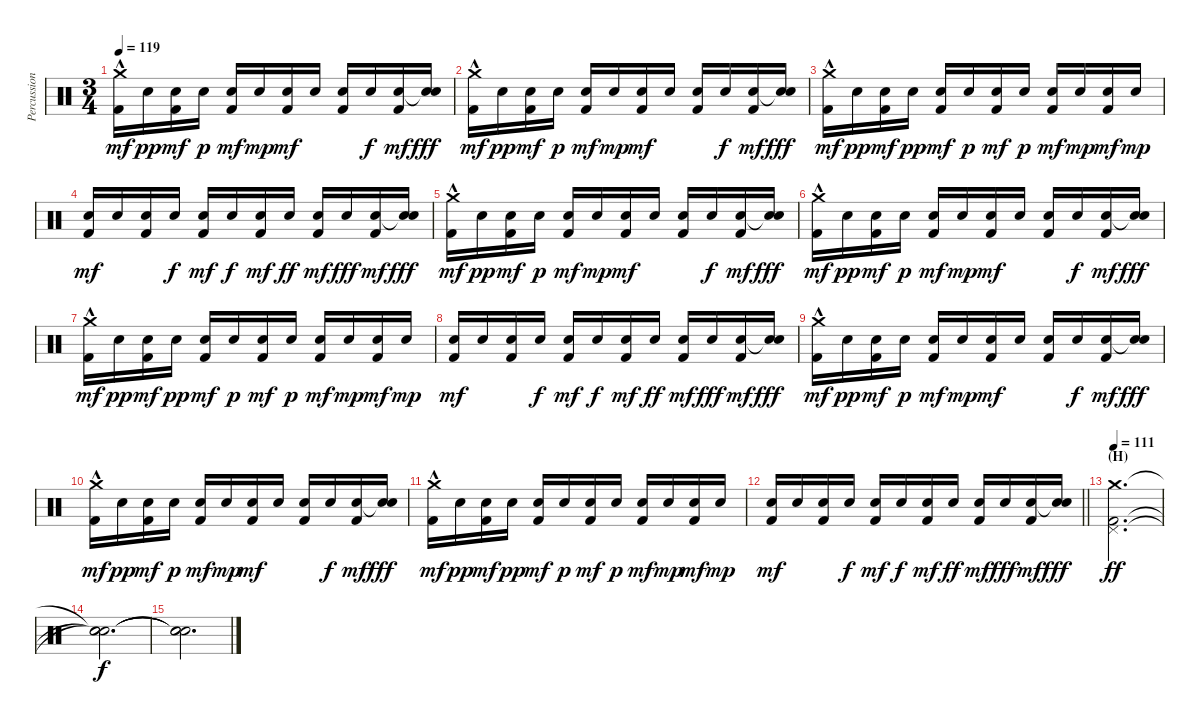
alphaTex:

\track ("Percussion 1" "Percussion") {instrument percussion}
\staff {score}
\articulation defaults
\ts (3 4)
\tempo 119
\clef neutral
\ks c
("Crash medium (hit)"{hac} "Kick (hit) 2").16{dy mf} "Snare (hit) 2".16{dy pp} ("Snare (hit) 2" "Kick (hit) 2").16{dy mf} "Snare (hit) 2".16{dy p} ("Snare (hit) 2" "Kick (hit) 2").16{dy mf} "Snare (hit) 2".16{dy mp} ("Snare (hit) 2" "Kick (hit) 2").16{dy mf} "Snare (hit) 2".16 ("Snare (hit) 2" "Kick (hit) 2").16 "Snare (hit) 2".16{dy f} ("Snare (hit) 2" "Kick (hit) 2").16{dy mf} ("Snare (hit)"{t} "Snare (hit) 2").16{dy fff} |
("Crash medium (hit)"{hac} "Kick (hit) 2").16{dy mf} "Snare (hit) 2".16{dy pp} ("Snare (hit) 2" "Kick (hit) 2").16{dy mf} "Snare (hit) 2".16{dy p} ("Snare (hit) 2" "Kick (hit) 2").16{dy mf} "Snare (hit) 2".16{dy mp} ("Snare (hit) 2" "Kick (hit) 2").16{dy mf} "Snare (hit) 2".16 ("Snare (hit) 2" "Kick (hit) 2").16 "Snare (hit) 2".16{dy f} ("Snare (hit) 2" "Kick (hit) 2").16{dy mf} ("Snare (hit)"{t} "Snare (hit) 2").16{dy fff} |
("Crash medium (hit)"{hac} "Kick (hit) 2").16{dy mf} "Snare (hit) 2".16{dy pp} ("Snare (hit) 2" "Kick (hit) 2").16{dy mf} "Snare (hit) 2".16{dy pp} ("Snare (hit) 2" "Kick (hit) 2").16{dy mf} "Snare (hit) 2".16{dy p} ("Snare (hit) 2" "Kick (hit) 2").16{dy mf} "Snare (hit) 2".16{dy p} ("Snare (hit) 2" "Kick (hit) 2").16{dy mf} "Snare (hit) 2".16{dy mp} ("Snare (hit) 2" "Kick (hit) 2").16{dy mf} "Snare (hit) 2".16{dy mp} |
("Snare (hit) 2" "Kick (hit) 2").16{dy mf} "Snare (hit) 2".16 ("Snare (hit) 2" "Kick (hit) 2").16 "Snare (hit) 2".16{dy f} ("Snare (hit) 2" "Kick (hit) 2").16{dy mf} "Snare (hit) 2".16{dy f} ("Snare (hit) 2" "Kick (hit) 2").16{dy mf} "Snare (hit) 2".16{dy ff} ("Snare (hit) 2" "Kick (hit) 2").16{dy mf} "Snare (hit) 2".16{dy fff} ("Snare (hit) 2" "Kick (hit) 2").16{dy mf} ("Snare (hit)"{t} "Snare (hit) 2").16{dy fff} |
("Crash medium (hit)"{hac} "Kick (hit) 2").16{dy mf} "Snare (hit) 2".16{dy pp} ("Snare (hit) 2" "Kick (hit) 2").16{dy mf} "Snare (hit) 2".16{dy p} ("Snare (hit) 2" "Kick (hit) 2").16{dy mf} "Snare (hit) 2".16{dy mp} ("Snare (hit) 2" "Kick (hit) 2").16{dy mf} "Snare (hit) 2".16 ("Snare (hit) 2" "Kick (hit) 2").16 "Snare (hit) 2".16{dy f} ("Snare (hit) 2" "Kick (hit) 2").16{dy mf} ("Snare (hit)"{t} "Snare (hit) 2").16{dy fff} |
("Crash medium (hit)"{hac} "Kick (hit) 2").16{dy mf} "Snare (hit) 2".16{dy pp} ("Snare (hit) 2" "Kick (hit) 2").16{dy mf} "Snare (hit) 2".16{dy p} ("Snare (hit) 2" "Kick (hit) 2").16{dy mf} "Snare (hit) 2".16{dy mp} ("Snare (hit) 2" "Kick (hit) 2").16{dy mf} "Snare (hit) 2".16 ("Snare (hit) 2" "Kick (hit) 2").16 "Snare (hit) 2".16{dy f} ("Snare (hit) 2" "Kick (hit) 2").16{dy mf} ("Snare (hit)"{t} "Snare (hit) 2").16{dy fff} |
("Crash medium (hit)"{hac} "Kick (hit) 2").16{dy mf} "Snare (hit) 2".16{dy pp} ("Snare (hit) 2" "Kick (hit) 2").16{dy mf} "Snare (hit) 2".16{dy pp} ("Snare (hit) 2" "Kick (hit) 2").16{dy mf} "Snare (hit) 2".16{dy p} ("Snare (hit) 2" "Kick (hit) 2").16{dy mf} "Snare (hit) 2".16{dy p} ("Snare (hit) 2" "Kick (hit) 2").16{dy mf} "Snare (hit) 2".16{dy mp} ("Snare (hit) 2" "Kick (hit) 2").16{dy mf} "Snare (hit) 2".16{dy mp} |
("Snare (hit) 2" "Kick (hit) 2").16{dy mf} "Snare (hit) 2".16 ("Snare (hit) 2" "Kick (hit) 2").16 "Snare (hit) 2".16{dy f} ("Snare (hit) 2" "Kick (hit) 2").16{dy mf} "Snare (hit) 2".16{dy f} ("Snare (hit) 2" "Kick (hit) 2").16{dy mf} "Snare (hit) 2".16{dy ff} ("Snare (hit) 2" "Kick (hit) 2").16{dy mf} "Snare (hit) 2".16{dy fff} ("Snare (hit) 2" "Kick (hit) 2").16{dy mf} ("Snare (hit)"{t} "Snare (hit) 2").16{dy fff} |
("Crash medium (hit)"{hac} "Kick (hit) 2").16{dy mf} "Snare (hit) 2".16{dy pp} ("Snare (hit) 2" "Kick (hit) 2").16{dy mf} "Snare (hit) 2".16{dy p} ("Snare (hit) 2" "Kick (hit) 2").16{dy mf} "Snare (hit) 2".16{dy mp} ("Snare (hit) 2" "Kick (hit) 2").16{dy mf} "Snare (hit) 2".16 ("Snare (hit) 2" "Kick (hit) 2").16 "Snare (hit) 2".16{dy f} ("Snare (hit) 2" "Kick (hit) 2").16{dy mf} ("Snare (hit)"{t} "Snare (hit) 2").16{dy fff} |
("Crash medium (hit)"{hac} "Kick (hit) 2").16{dy mf} "Snare (hit) 2".16{dy pp} ("Snare (hit) 2" "Kick (hit) 2").16{dy mf} "Snare (hit) 2".16{dy p} ("Snare (hit) 2" "Kick (hit) 2").16{dy mf} "Snare (hit) 2".16{dy mp} ("Snare (hit) 2" "Kick (hit) 2").16{dy mf} "Snare (hit) 2".16 ("Snare (hit) 2" "Kick (hit) 2").16 "Snare (hit) 2".16{dy f} ("Snare (hit) 2" "Kick (hit) 2").16{dy mf} ("Snare (hit)"{t} "Snare (hit) 2").16{dy fff} |
("Crash medium (hit)"{hac} "Kick (hit) 2").16{dy mf} "Snare (hit) 2".16{dy pp} ("Snare (hit) 2" "Kick (hit) 2").16{dy mf} "Snare (hit) 2".16{dy pp} ("Snare (hit) 2" "Kick (hit) 2").16{dy mf} "Snare (hit) 2".16{dy p} ("Snare (hit) 2" "Kick (hit) 2").16{dy mf} "Snare (hit) 2".16{dy p} ("Snare (hit) 2" "Kick (hit) 2").16{dy mf} "Snare (hit) 2".16{dy mp} ("Snare (hit) 2" "Kick (hit) 2").16{dy mf} "Snare (hit) 2".16{dy mp} |
\barLineRight lightlight
("Snare (hit) 2" "Kick (hit) 2").16{dy mf} "Snare (hit) 2".16 ("Snare (hit) 2" "Kick (hit) 2").16 "Snare (hit) 2".16{dy f} ("Snare (hit) 2" "Kick (hit) 2").16{dy mf} "Snare (hit) 2".16{dy f} ("Snare (hit) 2" "Kick (hit) 2").16{dy mf} "Snare (hit) 2".16{dy ff} ("Snare (hit) 2" "Kick (hit) 2").16{dy mf} "Snare (hit) 2".16{dy fff} ("Snare (hit) 2" "Kick (hit) 2").16{dy mf} ("Snare (hit)"{t} "Snare (hit) 2").16{dy fff} |
\section ("" "(H)")
\tempo 111
("Crash medium (hit)" "Pedal Hi-Hat (hit)" "Kick (hit) 2").2{d dy ff} |
("Snare (hit)"{t} "Snare (hit)"{t} "Snare (hit)"{t}).2{d dy f} |
("Snare (hit)"{t} "Snare (hit)"{t} "Snare (hit)"{t}).2{d}
